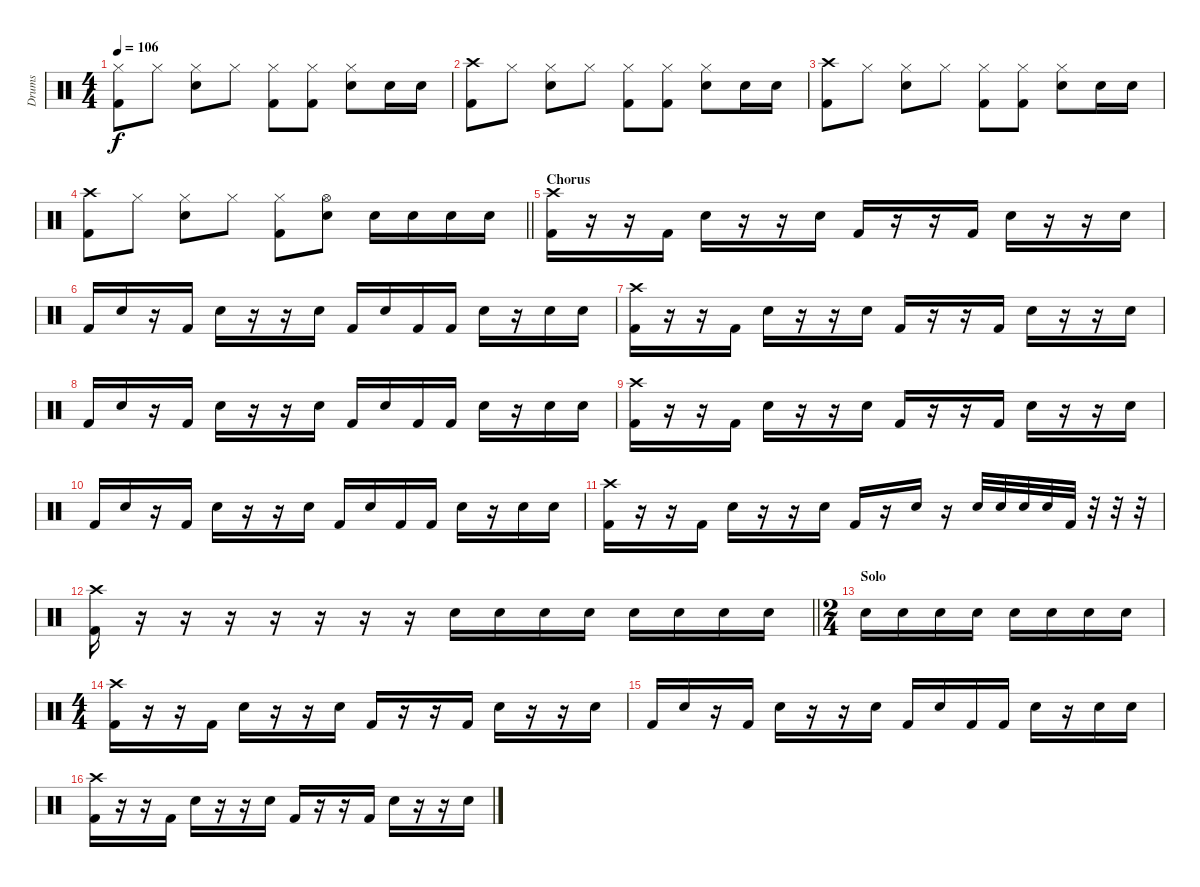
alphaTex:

\track ("Drums" "Drums") {instrument percussion}
\staff {score}
\articulation defaults
\ts (4 4)
\tempo 106
\clef neutral
\ks c
("Hi-Hat (closed)" "Kick (hit) 2").8{dy f} "Hi-Hat (closed)".8 ("Hi-Hat (closed)" "Electric Snare (hit)").8 "Hi-Hat (closed)".8 ("Hi-Hat (closed)" "Kick (hit) 2").8 ("Hi-Hat (closed)" "Kick (hit) 2").8 ("Hi-Hat (closed)" "Electric Snare (hit)").8 "Electric Snare (hit)".16 "Electric Snare (hit)".16 |
("Crash high (hit)" "Kick (hit) 2").8 "Hi-Hat (closed)".8 ("Hi-Hat (closed)" "Electric Snare (hit)").8 "Hi-Hat (closed)".8 ("Hi-Hat (closed)" "Kick (hit) 2").8 ("Hi-Hat (closed)" "Kick (hit) 2").8 ("Hi-Hat (closed)" "Electric Snare (hit)").8 "Electric Snare (hit)".16 "Electric Snare (hit)".16 |
("Crash high (hit)" "Kick (hit) 2").8 "Hi-Hat (closed)".8 ("Hi-Hat (closed)" "Electric Snare (hit)").8 "Hi-Hat (closed)".8 ("Hi-Hat (closed)" "Kick (hit) 2").8 ("Hi-Hat (closed)" "Kick (hit) 2").8 ("Hi-Hat (closed)" "Electric Snare (hit)").8 "Electric Snare (hit)".16 "Electric Snare (hit)".16 |
\barLineRight lightlight
("Crash high (hit)" "Kick (hit) 2").8 "Hi-Hat (closed)".8 ("Hi-Hat (closed)" "Electric Snare (hit)").8 "Hi-Hat (closed)".8 ("Hi-Hat (closed)" "Kick (hit) 2").8 ("Hi-Hat (open)" "Electric Snare (hit)").8 "Electric Snare (hit)".16 "Electric Snare (hit)".16 "Electric Snare (hit)".16 "Electric Snare (hit)".16 |
\section ("" "Chorus")
("Crash high (hit)" "Kick (hit) 2").16 r.16 r.16 "Kick (hit) 2".16 "Electric Snare (hit)".16 r.16 r.16 "Electric Snare (hit)".16 "Kick (hit) 2".16 r.16 r.16 "Kick (hit) 2".16 "Electric Snare (hit)".16 r.16 r.16 "Electric Snare (hit)".16 |
"Kick (hit) 2".16 "Electric Snare (hit)".16 r.16 "Kick (hit) 2".16 "Electric Snare (hit)".16 r.16 r.16 "Electric Snare (hit)".16 "Kick (hit) 2".16 "Electric Snare (hit)".16 "Kick (hit) 2".16 "Kick (hit) 2".16 "Electric Snare (hit)".16 r.16 "Electric Snare (hit)".16 "Electric Snare (hit)".16 |
("Crash high (hit)" "Kick (hit) 2").16 r.16 r.16 "Kick (hit) 2".16 "Electric Snare (hit)".16 r.16 r.16 "Electric Snare (hit)".16 "Kick (hit) 2".16 r.16 r.16 "Kick (hit) 2".16 "Electric Snare (hit)".16 r.16 r.16 "Electric Snare (hit)".16 |
"Kick (hit) 2".16 "Electric Snare (hit)".16 r.16 "Kick (hit) 2".16 "Electric Snare (hit)".16 r.16 r.16 "Electric Snare (hit)".16 "Kick (hit) 2".16 "Electric Snare (hit)".16 "Kick (hit) 2".16 "Kick (hit) 2".16 "Electric Snare (hit)".16 r.16 "Electric Snare (hit)".16 "Electric Snare (hit)".16 |
("Crash high (hit)" "Kick (hit) 2").16 r.16 r.16 "Kick (hit) 2".16 "Electric Snare (hit)".16 r.16 r.16 "Electric Snare (hit)".16 "Kick (hit) 2".16 r.16 r.16 "Kick (hit) 2".16 "Electric Snare (hit)".16 r.16 r.16 "Electric Snare (hit)".16 |
"Kick (hit) 2".16 "Electric Snare (hit)".16 r.16 "Kick (hit) 2".16 "Electric Snare (hit)".16 r.16 r.16 "Electric Snare (hit)".16 "Kick (hit) 2".16 "Electric Snare (hit)".16 "Kick (hit) 2".16 "Kick (hit) 2".16 "Electric Snare (hit)".16 r.16 "Electric Snare (hit)".16 "Electric Snare (hit)".16 |
("Crash high (hit)" "Kick (hit) 2").16 r.16 r.16 "Kick (hit) 2".16 "Electric Snare (hit)".16 r.16 r.16 "Electric Snare (hit)".16 "Kick (hit) 2".16 r.16 "Electric Snare (hit)".16 r.16 "Electric Snare (hit)".32 "Electric Snare (hit)".32 "Electric Snare (hit)".32 "Electric Snare (hit)".32 "Kick (hit) 2".32 r.32 r.32 r.32 |
\barLineRight lightlight
("Crash high (hit)" "Kick (hit) 2").16 r.16 r.16 r.16 r.16 r.16 r.16 r.16 "Snare (hit) 2".16 "Snare (hit) 2".16 "Snare (hit) 2".16 "Snare (hit) 2".16 "Snare (hit) 2".16 "Snare (hit) 2".16 "Snare (hit) 2".16 "Snare (hit) 2".16 |
\ts (2 4)
\section ("" "Solo")
"Snare (hit) 2".16 "Snare (hit) 2".16 "Snare (hit) 2".16 "Snare (hit) 2".16 "Snare (hit) 2".16 "Snare (hit) 2".16 "Snare (hit) 2".16 "Snare (hit) 2".16 |
\ts (4 4)
("Crash high (hit)" "Kick (hit) 2").16 r.16 r.16 "Kick (hit) 2".16 "Electric Snare (hit)".16 r.16 r.16 "Electric Snare (hit)".16 "Kick (hit) 2".16 r.16 r.16 "Kick (hit) 2".16 "Electric Snare (hit)".16 r.16 r.16 "Electric Snare (hit)".16 |
"Kick (hit) 2".16 "Electric Snare (hit)".16 r.16 "Kick (hit) 2".16 "Electric Snare (hit)".16 r.16 r.16 "Electric Snare (hit)".16 "Kick (hit) 2".16 "Electric Snare (hit)".16 "Kick (hit) 2".16 "Kick (hit) 2".16 "Electric Snare (hit)".16 r.16 "Electric Snare (hit)".16 "Electric Snare (hit)".16 |
("Crash high (hit)" "Kick (hit) 2").16 r.16 r.16 "Kick (hit) 2".16 "Electric Snare (hit)".16 r.16 r.16 "Electric Snare (hit)".16 "Kick (hit) 2".16 r.16 r.16 "Kick (hit) 2".16 "Electric Snare (hit)".16 r.16 r.16 "Electric Snare (hit)".16
